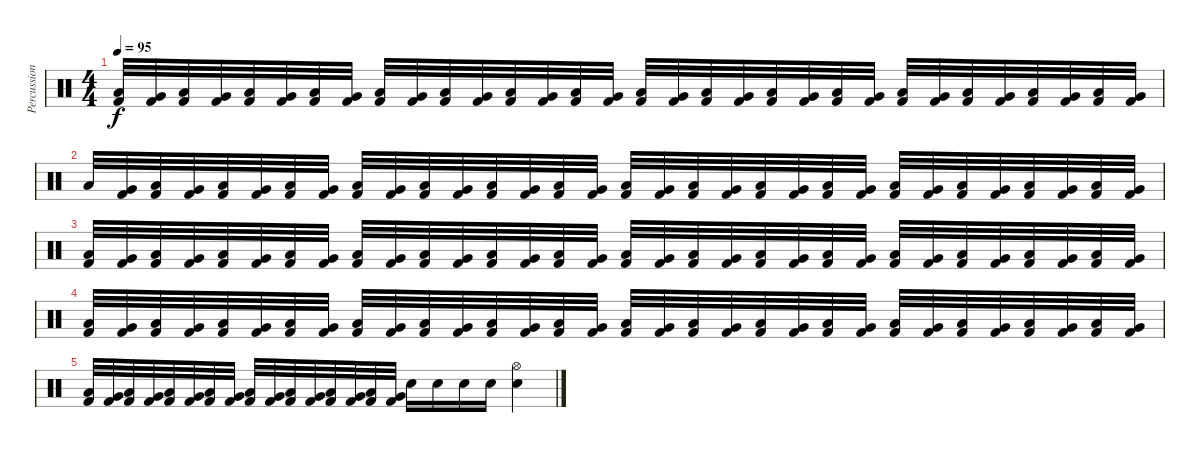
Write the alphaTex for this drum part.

\track ("Percussion" "Percussion") {instrument percussion}
\staff {score}
\articulation defaults
\ts (4 4)
\tempo 95
\clef neutral
\ks c
("Low Tom (hit)" "Kick (hit) 2").32{dy f} ("Very Low Tom (hit)" "Kick (hit) 2").32 ("Low Tom (hit)" "Kick (hit) 2").32 ("Very Low Tom (hit)" "Kick (hit) 2").32 ("Low Tom (hit)" "Kick (hit) 2").32 ("Very Low Tom (hit)" "Kick (hit) 2").32 ("Low Tom (hit)" "Kick (hit) 2").32 ("Very Low Tom (hit)" "Kick (hit) 2").32 ("Low Tom (hit)" "Kick (hit) 2").32 ("Very Low Tom (hit)" "Kick (hit) 2").32 ("Low Tom (hit)" "Kick (hit) 2").32 ("Very Low Tom (hit)" "Kick (hit) 2").32 ("Low Tom (hit)" "Kick (hit) 2").32 ("Very Low Tom (hit)" "Kick (hit) 2").32 ("Low Tom (hit)" "Kick (hit) 2").32 ("Very Low Tom (hit)" "Kick (hit) 2").32 ("Low Tom (hit)" "Kick (hit) 2").32 ("Very Low Tom (hit)" "Kick (hit) 2").32 ("Low Tom (hit)" "Kick (hit) 2").32 ("Very Low Tom (hit)" "Kick (hit) 2").32 ("Low Tom (hit)" "Kick (hit) 2").32 ("Very Low Tom (hit)" "Kick (hit) 2").32 ("Low Tom (hit)" "Kick (hit) 2").32 ("Very Low Tom (hit)" "Kick (hit) 2").32 ("Low Tom (hit)" "Kick (hit) 2").32 ("Very Low Tom (hit)" "Kick (hit) 2").32 ("Low Tom (hit)" "Kick (hit) 2").32 ("Very Low Tom (hit)" "Kick (hit) 2").32 ("Low Tom (hit)" "Kick (hit) 2").32 ("Very Low Tom (hit)" "Kick (hit) 2").32 ("Low Tom (hit)" "Kick (hit) 2").32 ("Very Low Tom (hit)" "Kick (hit) 2").32 |
"Low Tom (hit)".32 ("Very Low Tom (hit)" "Kick (hit) 2").32 ("Low Tom (hit)" "Kick (hit) 2").32 ("Very Low Tom (hit)" "Kick (hit) 2").32 ("Low Tom (hit)" "Kick (hit) 2").32 ("Very Low Tom (hit)" "Kick (hit) 2").32 ("Low Tom (hit)" "Kick (hit) 2").32 ("Very Low Tom (hit)" "Kick (hit) 2").32 ("Low Tom (hit)" "Kick (hit) 2").32 ("Very Low Tom (hit)" "Kick (hit) 2").32 ("Low Tom (hit)" "Kick (hit) 2").32 ("Very Low Tom (hit)" "Kick (hit) 2").32 ("Low Tom (hit)" "Kick (hit) 2").32 ("Very Low Tom (hit)" "Kick (hit) 2").32 ("Low Tom (hit)" "Kick (hit) 2").32 ("Very Low Tom (hit)" "Kick (hit) 2").32 ("Low Tom (hit)" "Kick (hit) 2").32 ("Very Low Tom (hit)" "Kick (hit) 2").32 ("Low Tom (hit)" "Kick (hit) 2").32 ("Very Low Tom (hit)" "Kick (hit) 2").32 ("Low Tom (hit)" "Kick (hit) 2").32 ("Very Low Tom (hit)" "Kick (hit) 2").32 ("Low Tom (hit)" "Kick (hit) 2").32 ("Very Low Tom (hit)" "Kick (hit) 2").32 ("Low Tom (hit)" "Kick (hit) 2").32 ("Very Low Tom (hit)" "Kick (hit) 2").32 ("Low Tom (hit)" "Kick (hit) 2").32 ("Very Low Tom (hit)" "Kick (hit) 2").32 ("Low Tom (hit)" "Kick (hit) 2").32 ("Very Low Tom (hit)" "Kick (hit) 2").32 ("Low Tom (hit)" "Kick (hit) 2").32 ("Very Low Tom (hit)" "Kick (hit) 2").32 |
("Low Tom (hit)" "Kick (hit) 2").32 ("Very Low Tom (hit)" "Kick (hit) 2").32 ("Low Tom (hit)" "Kick (hit) 2").32 ("Very Low Tom (hit)" "Kick (hit) 2").32 ("Low Tom (hit)" "Kick (hit) 2").32 ("Very Low Tom (hit)" "Kick (hit) 2").32 ("Low Tom (hit)" "Kick (hit) 2").32 ("Very Low Tom (hit)" "Kick (hit) 2").32 ("Low Tom (hit)" "Kick (hit) 2").32 ("Very Low Tom (hit)" "Kick (hit) 2").32 ("Low Tom (hit)" "Kick (hit) 2").32 ("Very Low Tom (hit)" "Kick (hit) 2").32 ("Low Tom (hit)" "Kick (hit) 2").32 ("Very Low Tom (hit)" "Kick (hit) 2").32 ("Low Tom (hit)" "Kick (hit) 2").32 ("Very Low Tom (hit)" "Kick (hit) 2").32 ("Low Tom (hit)" "Kick (hit) 2").32 ("Very Low Tom (hit)" "Kick (hit) 2").32 ("Low Tom (hit)" "Kick (hit) 2").32 ("Very Low Tom (hit)" "Kick (hit) 2").32 ("Low Tom (hit)" "Kick (hit) 2").32 ("Very Low Tom (hit)" "Kick (hit) 2").32 ("Low Tom (hit)" "Kick (hit) 2").32 ("Very Low Tom (hit)" "Kick (hit) 2").32 ("Low Tom (hit)" "Kick (hit) 2").32 ("Very Low Tom (hit)" "Kick (hit) 2").32 ("Low Tom (hit)" "Kick (hit) 2").32 ("Very Low Tom (hit)" "Kick (hit) 2").32 ("Low Tom (hit)" "Kick (hit) 2").32 ("Very Low Tom (hit)" "Kick (hit) 2").32 ("Low Tom (hit)" "Kick (hit) 2").32 ("Very Low Tom (hit)" "Kick (hit) 2").32 |
("Low Tom (hit)" "Kick (hit) 2").32 ("Very Low Tom (hit)" "Kick (hit) 2").32 ("Low Tom (hit)" "Kick (hit) 2").32 ("Very Low Tom (hit)" "Kick (hit) 2").32 ("Low Tom (hit)" "Kick (hit) 2").32 ("Very Low Tom (hit)" "Kick (hit) 2").32 ("Low Tom (hit)" "Kick (hit) 2").32 ("Very Low Tom (hit)" "Kick (hit) 2").32 ("Low Tom (hit)" "Kick (hit) 2").32 ("Very Low Tom (hit)" "Kick (hit) 2").32 ("Low Tom (hit)" "Kick (hit) 2").32 ("Very Low Tom (hit)" "Kick (hit) 2").32 ("Low Tom (hit)" "Kick (hit) 2").32 ("Very Low Tom (hit)" "Kick (hit) 2").32 ("Low Tom (hit)" "Kick (hit) 2").32 ("Very Low Tom (hit)" "Kick (hit) 2").32 ("Low Tom (hit)" "Kick (hit) 2").32 ("Very Low Tom (hit)" "Kick (hit) 2").32 ("Low Tom (hit)" "Kick (hit) 2").32 ("Very Low Tom (hit)" "Kick (hit) 2").32 ("Low Tom (hit)" "Kick (hit) 2").32 ("Very Low Tom (hit)" "Kick (hit) 2").32 ("Low Tom (hit)" "Kick (hit) 2").32 ("Very Low Tom (hit)" "Kick (hit) 2").32 ("Low Tom (hit)" "Kick (hit) 2").32 ("Very Low Tom (hit)" "Kick (hit) 2").32 ("Low Tom (hit)" "Kick (hit) 2").32 ("Very Low Tom (hit)" "Kick (hit) 2").32 ("Low Tom (hit)" "Kick (hit) 2").32 ("Very Low Tom (hit)" "Kick (hit) 2").32 ("Low Tom (hit)" "Kick (hit) 2").32 ("Very Low Tom (hit)" "Kick (hit) 2").32 |
("Low Tom (hit)" "Kick (hit) 2").32 ("Very Low Tom (hit)" "Kick (hit) 2").32 ("Low Tom (hit)" "Kick (hit) 2").32 ("Very Low Tom (hit)" "Kick (hit) 2").32 ("Low Tom (hit)" "Kick (hit) 2").32 ("Very Low Tom (hit)" "Kick (hit) 2").32 ("Low Tom (hit)" "Kick (hit) 2").32 ("Very Low Tom (hit)" "Kick (hit) 2").32 ("Low Tom (hit)" "Kick (hit) 2").32 ("Very Low Tom (hit)" "Kick (hit) 2").32 ("Low Tom (hit)" "Kick (hit) 2").32 ("Very Low Tom (hit)" "Kick (hit) 2").32 ("Low Tom (hit)" "Kick (hit) 2").32 ("Very Low Tom (hit)" "Kick (hit) 2").32 ("Low Tom (hit)" "Kick (hit) 2").32 ("Very Low Tom (hit)" "Kick (hit) 2").32 "Snare (hit) 2".16 "Snare (hit) 2".16 "Snare (hit) 2".16 "Snare (hit) 2".16 ("Hi-Hat (open)" "Snare (hit) 2").4
